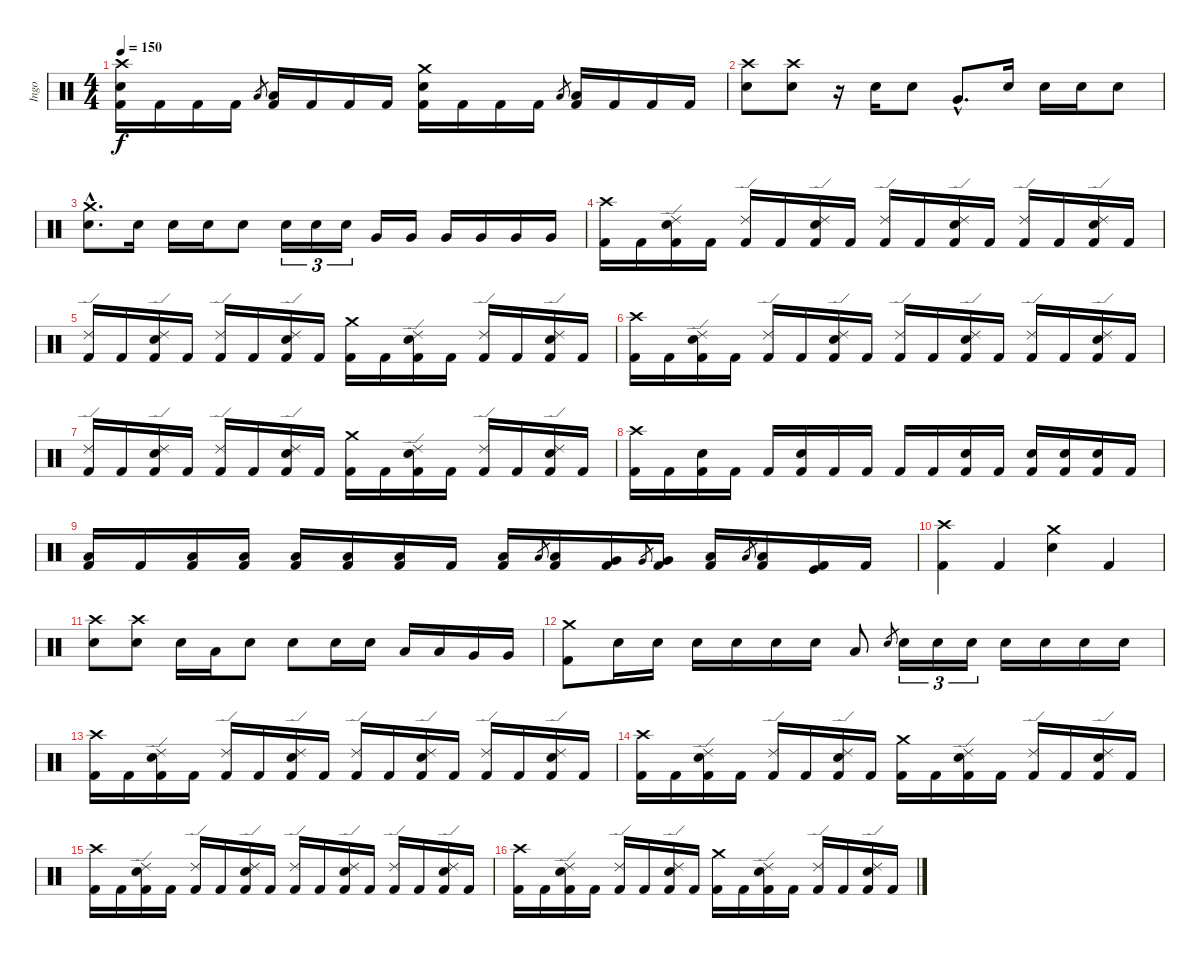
\track ("Ingo" "Ingo") {instrument percussion}
\staff {score}
\articulation defaults
\ts (4 4)
\tempo 150
\clef neutral
\ks c
("Crash high (hit)" "Electric Snare (hit)" "Kick (hit) 2").16{dy f} "Kick (hit) 2".16 "Kick (hit) 2".16 "Kick (hit) 2".16 "Low Floor Tom (hit)".8{gr} ("Low Floor Tom (hit)" "Kick (hit) 2").16 "Kick (hit) 2".16 "Kick (hit) 2".16 "Kick (hit) 2".16 ("Crash medium (hit)" "Electric Snare (hit)" "Kick (hit) 2").16 "Kick (hit) 2".16 "Kick (hit) 2".16 "Kick (hit) 2".16 "Low Floor Tom (hit)".8{gr} ("Low Floor Tom (hit)" "Kick (hit) 2").16 "Kick (hit) 2".16 "Kick (hit) 2".16 "Kick (hit) 2".16 |
("Crash high (hit)" "Electric Snare (hit)").8 ("Crash high (hit)" "Electric Snare (hit)").8 r.16 "Electric Snare (hit)".16 "Electric Snare (hit)".8 "Very Low Tom (hit)"{hac}.8{d} "Electric Snare (hit)".16 "Electric Snare (hit)".16 "Electric Snare (hit)".16 "Electric Snare (hit)".8 |
("Crash medium (hit)"{hac} "Electric Snare (hit)"{hac}).8{d} "Electric Snare (hit)".16 "Electric Snare (hit)".16 "Electric Snare (hit)".16 "Electric Snare (hit)".8 "Electric Snare (hit)".16{tu (3 2)} "Electric Snare (hit)".16{tu (3 2)} "Electric Snare (hit)".16{tu (3 2)} "Very Low Tom (hit)".16 "Very Low Tom (hit)".16 "Very Low Tom (hit)".16 "Very Low Tom (hit)".16 "Very Low Tom (hit)".16 "Very Low Tom (hit)".16 |
("Crash high (hit)" "Kick (hit) 2").16 "Kick (hit) 2".16 ("Ride (edge) 2" "Electric Snare (hit)" "Kick (hit) 2").16 "Kick (hit) 2".16 ("Ride (edge) 2" "Kick (hit) 2").16 "Kick (hit) 2".16 ("Ride (edge) 2" "Electric Snare (hit)" "Kick (hit) 2").16 "Kick (hit) 2".16 ("Ride (edge) 2" "Kick (hit) 2").16 "Kick (hit) 2".16 ("Ride (edge) 2" "Electric Snare (hit)" "Kick (hit) 2").16 "Kick (hit) 2".16 ("Ride (edge) 2" "Kick (hit) 2").16 "Kick (hit) 2".16 ("Ride (edge) 2" "Electric Snare (hit)" "Kick (hit) 2").16 "Kick (hit) 2".16 |
("Ride (edge) 2" "Kick (hit) 2").16 "Kick (hit) 2".16 ("Ride (edge) 2" "Electric Snare (hit)" "Kick (hit) 2").16 "Kick (hit) 2".16 ("Ride (edge) 2" "Kick (hit) 2").16 "Kick (hit) 2".16 ("Ride (edge) 2" "Electric Snare (hit)" "Kick (hit) 2").16 "Kick (hit) 2".16 ("Crash medium (hit)" "Kick (hit) 2").16 "Kick (hit) 2".16 ("Ride (edge) 2" "Electric Snare (hit)" "Kick (hit) 2").16 "Kick (hit) 2".16 ("Ride (edge) 2" "Kick (hit) 2").16 "Kick (hit) 2".16 ("Ride (edge) 2" "Electric Snare (hit)" "Kick (hit) 2").16 "Kick (hit) 2".16 |
("Crash high (hit)" "Kick (hit) 2").16 "Kick (hit) 2".16 ("Ride (edge) 2" "Electric Snare (hit)" "Kick (hit) 2").16 "Kick (hit) 2".16 ("Ride (edge) 2" "Kick (hit) 2").16 "Kick (hit) 2".16 ("Ride (edge) 2" "Electric Snare (hit)" "Kick (hit) 2").16 "Kick (hit) 2".16 ("Ride (edge) 2" "Kick (hit) 2").16 "Kick (hit) 2".16 ("Ride (edge) 2" "Electric Snare (hit)" "Kick (hit) 2").16 "Kick (hit) 2".16 ("Ride (edge) 2" "Kick (hit) 2").16 "Kick (hit) 2".16 ("Ride (edge) 2" "Electric Snare (hit)" "Kick (hit) 2").16 "Kick (hit) 2".16 |
("Ride (edge) 2" "Kick (hit) 2").16 "Kick (hit) 2".16 ("Ride (edge) 2" "Electric Snare (hit)" "Kick (hit) 2").16 "Kick (hit) 2".16 ("Ride (edge) 2" "Kick (hit) 2").16 "Kick (hit) 2".16 ("Ride (edge) 2" "Electric Snare (hit)" "Kick (hit) 2").16 "Kick (hit) 2".16 ("Crash medium (hit)" "Kick (hit) 2").16 "Kick (hit) 2".16 ("Ride (edge) 2" "Electric Snare (hit)" "Kick (hit) 2").16 "Kick (hit) 2".16 ("Ride (edge) 2" "Kick (hit) 2").16 "Kick (hit) 2".16 ("Ride (edge) 2" "Electric Snare (hit)" "Kick (hit) 2").16 "Kick (hit) 2".16 |
("Crash high (hit)" "Kick (hit) 2").16 "Kick (hit) 2".16 ("Electric Snare (hit)" "Kick (hit) 2").16 "Kick (hit) 2".16 "Kick (hit) 2".16 ("Electric Snare (hit)" "Kick (hit) 2").16 "Kick (hit) 2".16 "Kick (hit) 2".16 "Kick (hit) 2".16 "Kick (hit) 2".16 ("Electric Snare (hit)" "Kick (hit) 2").16 "Kick (hit) 2".16 ("Electric Snare (hit)" "Kick (hit) 2").16 ("Electric Snare (hit)" "Kick (hit) 2").16 ("Electric Snare (hit)" "Kick (hit) 2").16 "Kick (hit) 2".16 |
("Low Tom (hit)" "Kick (hit) 2").16 "Kick (hit) 2".16 ("Low Tom (hit)" "Kick (hit) 2").16 ("Low Tom (hit)" "Kick (hit) 2").16 ("Low Tom (hit)" "Kick (hit) 2").16 ("Low Tom (hit)" "Kick (hit) 2").16 ("Low Tom (hit)" "Kick (hit) 2").16 "Kick (hit) 2".16 ("Low Tom (hit)" "Kick (hit) 2").16 "Low Tom (hit)".8{gr} ("Low Tom (hit)" "Kick (hit) 2").16 ("Very Low Tom (hit)" "Kick (hit) 2").16 "Very Low Tom (hit)".8{gr} ("Very Low Tom (hit)" "Kick (hit) 2").16 ("Low Floor Tom (hit)" "Kick (hit) 2").16 "Low Floor Tom (hit)".8{gr} ("Low Floor Tom (hit)" "Kick (hit) 2").16 ("Kick (hit)" "Kick (hit) 2").16 "Kick (hit) 2".16 |
("Crash high (hit)" "Kick (hit) 2").4 "Kick (hit) 2".4 ("Crash medium (hit)" "Electric Snare (hit)").4 "Kick (hit) 2".4 |
("Crash high (hit)" "Electric Snare (hit)").8 ("Crash high (hit)" "Electric Snare (hit)").8 "Electric Snare (hit)".16 "Low Tom (hit)".16 "Electric Snare (hit)".8 "Electric Snare (hit)".8 "Electric Snare (hit)".16 "Electric Snare (hit)".16 "Low Tom (hit)".16 "Low Tom (hit)".16 "Very Low Tom (hit)".16 "Very Low Tom (hit)".16 |
("Crash medium (hit)" "Kick (hit) 2").8 "Electric Snare (hit)".16 "Electric Snare (hit)".16 "Electric Snare (hit)".16 "Electric Snare (hit)".16 "Electric Snare (hit)".16 "Electric Snare (hit)".16 "Low Tom (hit)".8 "Electric Snare (hit)".8{gr} "Electric Snare (hit)".16{tu (3 2)} "Electric Snare (hit)".16{tu (3 2)} "Electric Snare (hit)".16{tu (3 2)} "Electric Snare (hit)".16 "Electric Snare (hit)".16 "Electric Snare (hit)".16 "Electric Snare (hit)".16 |
("Crash high (hit)" "Kick (hit) 2").16 "Kick (hit) 2".16 ("Ride (edge) 2" "Electric Snare (hit)" "Kick (hit) 2").16 "Kick (hit) 2".16 ("Ride (edge) 2" "Kick (hit) 2").16 "Kick (hit) 2".16 ("Ride (edge) 2" "Electric Snare (hit)" "Kick (hit) 2").16 "Kick (hit) 2".16 ("Ride (edge) 2" "Kick (hit) 2").16 "Kick (hit) 2".16 ("Ride (edge) 2" "Electric Snare (hit)" "Kick (hit) 2").16 "Kick (hit) 2".16 ("Ride (edge) 2" "Kick (hit) 2").16 "Kick (hit) 2".16 ("Ride (edge) 2" "Electric Snare (hit)" "Kick (hit) 2").16 "Kick (hit) 2".16 |
("Crash high (hit)" "Kick (hit) 2").16 "Kick (hit) 2".16 ("Ride (edge) 2" "Electric Snare (hit)" "Kick (hit) 2").16 "Kick (hit) 2".16 ("Ride (edge) 2" "Kick (hit) 2").16 "Kick (hit) 2".16 ("Ride (edge) 2" "Electric Snare (hit)" "Kick (hit) 2").16 "Kick (hit) 2".16 ("Crash medium (hit)" "Kick (hit) 2").16 "Kick (hit) 2".16 ("Ride (edge) 2" "Electric Snare (hit)" "Kick (hit) 2").16 "Kick (hit) 2".16 ("Ride (edge) 2" "Kick (hit) 2").16 "Kick (hit) 2".16 ("Ride (edge) 2" "Electric Snare (hit)" "Kick (hit) 2").16 "Kick (hit) 2".16 |
("Crash high (hit)" "Kick (hit) 2").16 "Kick (hit) 2".16 ("Ride (edge) 2" "Electric Snare (hit)" "Kick (hit) 2").16 "Kick (hit) 2".16 ("Ride (edge) 2" "Kick (hit) 2").16 "Kick (hit) 2".16 ("Ride (edge) 2" "Electric Snare (hit)" "Kick (hit) 2").16 "Kick (hit) 2".16 ("Ride (edge) 2" "Kick (hit) 2").16 "Kick (hit) 2".16 ("Ride (edge) 2" "Electric Snare (hit)" "Kick (hit) 2").16 "Kick (hit) 2".16 ("Ride (edge) 2" "Kick (hit) 2").16 "Kick (hit) 2".16 ("Ride (edge) 2" "Electric Snare (hit)" "Kick (hit) 2").16 "Kick (hit) 2".16 |
("Crash high (hit)" "Kick (hit) 2").16 "Kick (hit) 2".16 ("Ride (edge) 2" "Electric Snare (hit)" "Kick (hit) 2").16 "Kick (hit) 2".16 ("Ride (edge) 2" "Kick (hit) 2").16 "Kick (hit) 2".16 ("Ride (edge) 2" "Electric Snare (hit)" "Kick (hit) 2").16 "Kick (hit) 2".16 ("Crash medium (hit)" "Kick (hit) 2").16 "Kick (hit) 2".16 ("Ride (edge) 2" "Electric Snare (hit)" "Kick (hit) 2").16 "Kick (hit) 2".16 ("Ride (edge) 2" "Kick (hit) 2").16 "Kick (hit) 2".16 ("Ride (edge) 2" "Electric Snare (hit)" "Kick (hit) 2").16 "Kick (hit) 2".16
